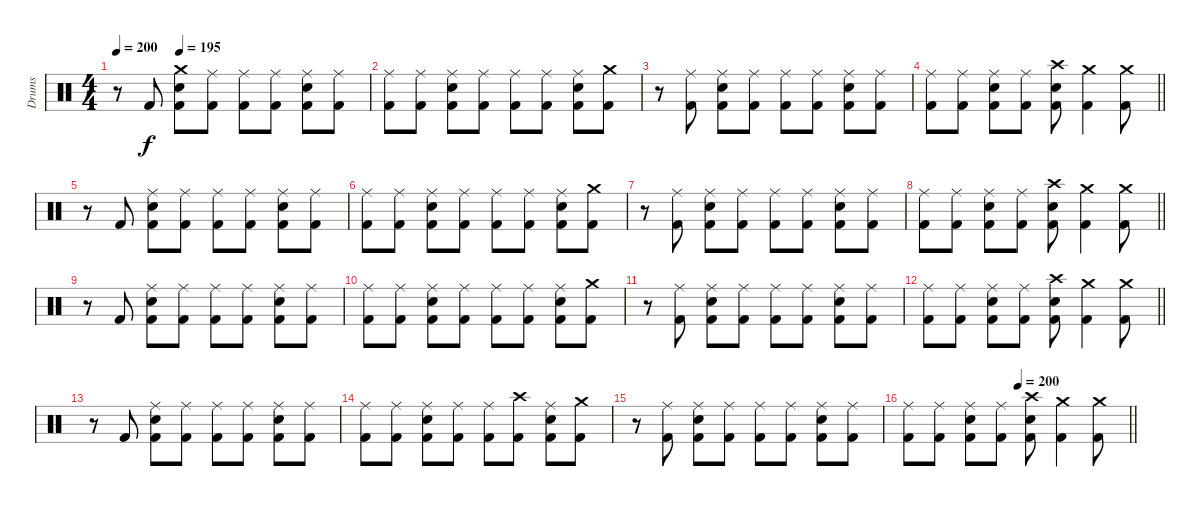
\track ("Drums" "Drums") {instrument percussion}
\staff {score}
\articulation defaults
\ts (4 4)
\section ("" "")
\tempo 200
\tempo (195 0.25)
\clef neutral
\ks c
r.8{dy f} "Kick (hit) 2".8 ("Crash medium (hit)" "Electric Snare (hit)" "Kick (hit) 2").8 ("Ride (middle)" "Kick (hit) 2").8 ("Ride (middle)" "Kick (hit) 2").8 ("Ride (middle)" "Kick (hit) 2").8 ("Ride (middle)" "Electric Snare (hit)" "Kick (hit) 2").8 ("Ride (middle)" "Kick (hit) 2").8 |
("Ride (middle)" "Kick (hit) 2").8 ("Ride (middle)" "Kick (hit) 2").8 ("Ride (middle)" "Electric Snare (hit)" "Kick (hit) 2").8 ("Ride (middle)" "Kick (hit) 2").8 ("Ride (middle)" "Kick (hit) 2").8 ("Ride (middle)" "Kick (hit) 2").8 ("Ride (middle)" "Electric Snare (hit)" "Kick (hit) 2").8 ("Crash medium (hit)" "Kick (hit) 2").8 |
r.8 ("Ride (middle)" "Kick (hit) 2").8 ("Ride (middle)" "Electric Snare (hit)" "Kick (hit) 2").8 ("Ride (middle)" "Kick (hit) 2").8 ("Ride (middle)" "Kick (hit) 2").8 ("Ride (middle)" "Kick (hit) 2").8 ("Ride (middle)" "Electric Snare (hit)" "Kick (hit) 2").8 ("Ride (middle)" "Kick (hit) 2").8 |
\barLineRight lightlight
("Ride (middle)" "Kick (hit) 2").8 ("Ride (middle)" "Kick (hit) 2").8 ("Ride (middle)" "Electric Snare (hit)" "Kick (hit) 2").8 ("Ride (middle)" "Kick (hit) 2").8 ("Crash high (hit)" "Electric Snare (hit)" "Kick (hit) 2").8 ("Crash medium (hit)" "Kick (hit) 2").4 ("Crash medium (hit)" "Kick (hit) 2").8 |
r.8 "Kick (hit) 2".8 ("Ride (middle)" "Electric Snare (hit)" "Kick (hit) 2").8 ("Ride (middle)" "Kick (hit) 2").8 ("Ride (middle)" "Kick (hit) 2").8 ("Ride (middle)" "Kick (hit) 2").8 ("Ride (middle)" "Electric Snare (hit)" "Kick (hit) 2").8 ("Ride (middle)" "Kick (hit) 2").8 |
("Ride (middle)" "Kick (hit) 2").8 ("Ride (middle)" "Kick (hit) 2").8 ("Ride (middle)" "Electric Snare (hit)" "Kick (hit) 2").8 ("Ride (middle)" "Kick (hit) 2").8 ("Ride (middle)" "Kick (hit) 2").8 ("Ride (middle)" "Kick (hit) 2").8 ("Ride (middle)" "Electric Snare (hit)" "Kick (hit) 2").8 ("Crash medium (hit)" "Kick (hit) 2").8 |
r.8 ("Ride (middle)" "Kick (hit) 2").8 ("Ride (middle)" "Electric Snare (hit)" "Kick (hit) 2").8 ("Ride (middle)" "Kick (hit) 2").8 ("Ride (middle)" "Kick (hit) 2").8 ("Ride (middle)" "Kick (hit) 2").8 ("Ride (middle)" "Electric Snare (hit)" "Kick (hit) 2").8 ("Ride (middle)" "Kick (hit) 2").8 |
\barLineRight lightlight
("Ride (middle)" "Kick (hit) 2").8 ("Ride (middle)" "Kick (hit) 2").8 ("Ride (middle)" "Electric Snare (hit)" "Kick (hit) 2").8 ("Ride (middle)" "Kick (hit) 2").8 ("Crash high (hit)" "Electric Snare (hit)" "Kick (hit) 2").8 ("Crash medium (hit)" "Kick (hit) 2").4 ("Crash medium (hit)" "Kick (hit) 2").8 |
r.8 "Kick (hit) 2".8 ("Ride (middle)" "Electric Snare (hit)" "Kick (hit) 2").8 ("Ride (middle)" "Kick (hit) 2").8 ("Ride (middle)" "Kick (hit) 2").8 ("Ride (middle)" "Kick (hit) 2").8 ("Ride (middle)" "Electric Snare (hit)" "Kick (hit) 2").8 ("Ride (middle)" "Kick (hit) 2").8 |
("Ride (middle)" "Kick (hit) 2").8 ("Ride (middle)" "Kick (hit) 2").8 ("Ride (middle)" "Electric Snare (hit)" "Kick (hit) 2").8 ("Ride (middle)" "Kick (hit) 2").8 ("Ride (middle)" "Kick (hit) 2").8 ("Ride (middle)" "Kick (hit) 2").8 ("Ride (middle)" "Electric Snare (hit)" "Kick (hit) 2").8 ("Crash medium (hit)" "Kick (hit) 2").8 |
r.8 ("Ride (middle)" "Kick (hit) 2").8 ("Ride (middle)" "Electric Snare (hit)" "Kick (hit) 2").8 ("Ride (middle)" "Kick (hit) 2").8 ("Ride (middle)" "Kick (hit) 2").8 ("Ride (middle)" "Kick (hit) 2").8 ("Ride (middle)" "Electric Snare (hit)" "Kick (hit) 2").8 ("Ride (middle)" "Kick (hit) 2").8 |
\barLineRight lightlight
("Ride (middle)" "Kick (hit) 2").8 ("Ride (middle)" "Kick (hit) 2").8 ("Ride (middle)" "Electric Snare (hit)" "Kick (hit) 2").8 ("Ride (middle)" "Kick (hit) 2").8 ("Crash high (hit)" "Electric Snare (hit)" "Kick (hit) 2").8 ("Crash medium (hit)" "Kick (hit) 2").4 ("Crash medium (hit)" "Kick (hit) 2").8 |
r.8 "Kick (hit) 2".8 ("Ride (middle)" "Electric Snare (hit)" "Kick (hit) 2").8 ("Ride (middle)" "Kick (hit) 2").8 ("Ride (middle)" "Kick (hit) 2").8 ("Ride (middle)" "Kick (hit) 2").8 ("Ride (middle)" "Electric Snare (hit)" "Kick (hit) 2").8 ("Ride (middle)" "Kick (hit) 2").8 |
("Ride (middle)" "Kick (hit) 2").8 ("Ride (middle)" "Kick (hit) 2").8 ("Ride (middle)" "Electric Snare (hit)" "Kick (hit) 2").8 ("Ride (middle)" "Kick (hit) 2").8 ("Ride (middle)" "Kick (hit) 2").8 ("Crash high (hit)" "Kick (hit) 2").8 ("Ride (middle)" "Electric Snare (hit)" "Kick (hit) 2").8 ("Crash medium (hit)" "Kick (hit) 2").8 |
r.8 ("Ride (middle)" "Kick (hit) 2").8 ("Ride (middle)" "Electric Snare (hit)" "Kick (hit) 2").8 ("Ride (middle)" "Kick (hit) 2").8 ("Ride (middle)" "Kick (hit) 2").8 ("Ride (middle)" "Kick (hit) 2").8 ("Ride (middle)" "Electric Snare (hit)" "Kick (hit) 2").8 ("Ride (middle)" "Kick (hit) 2").8 |
\tempo (200 0.5)
\barLineRight lightlight
("Ride (middle)" "Kick (hit) 2").8 ("Ride (middle)" "Kick (hit) 2").8 ("Ride (middle)" "Electric Snare (hit)" "Kick (hit) 2").8 ("Ride (middle)" "Kick (hit) 2").8 ("Crash high (hit)" "Electric Snare (hit)" "Kick (hit) 2").8 ("Crash medium (hit)" "Kick (hit) 2").4 ("Crash medium (hit)" "Kick (hit) 2").8
